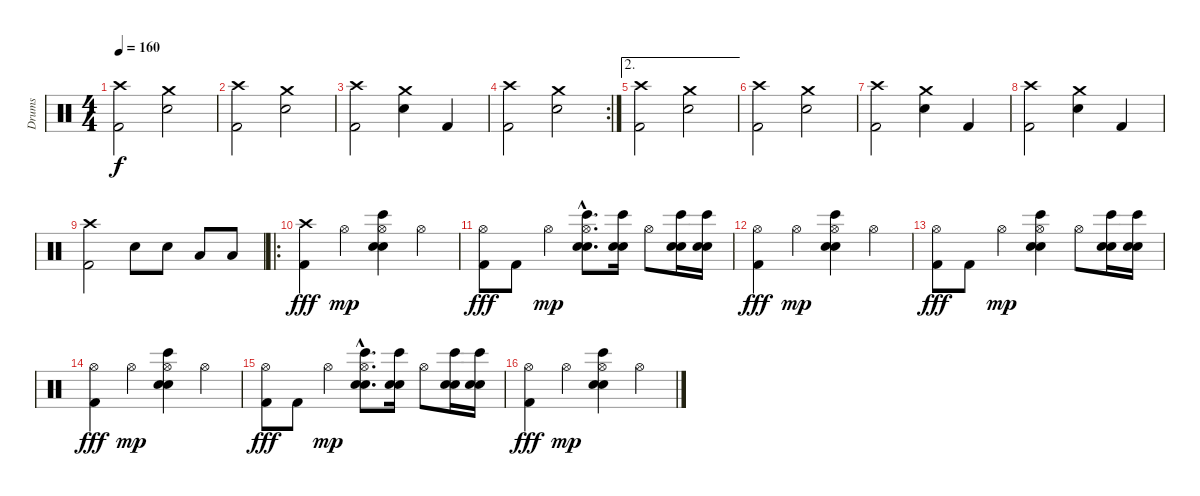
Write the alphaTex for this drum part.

\track ("Drums" "Drums") {instrument percussion}
\staff {score}
\articulation defaults
\ts (4 4)
\tempo 160
\clef neutral
\ks c
("Crash high (hit)" "Kick (hit) 2").2{dy f} ("Crash medium (hit)" "Snare (hit) 2").2 |
("Crash high (hit)" "Kick (hit) 2").2 ("Crash medium (hit)" "Snare (hit) 2").2 |
("Crash high (hit)" "Kick (hit) 2").2 ("Crash medium (hit)" "Snare (hit) 2").4 "Kick (hit) 2".4 |
\rc 2
("Crash high (hit)" "Kick (hit) 2").2 ("Crash medium (hit)" "Snare (hit) 2").2 |
\ae 2
("Crash high (hit)" "Kick (hit) 2").2 ("Crash medium (hit)" "Snare (hit) 2").2 |
("Crash high (hit)" "Kick (hit) 2").2 ("Crash medium (hit)" "Snare (hit) 2").2 |
("Crash high (hit)" "Kick (hit) 2").2 ("Crash medium (hit)" "Snare (hit) 2").4 "Kick (hit) 2".4 |
("Crash high (hit)" "Kick (hit) 2").2 ("Crash medium (hit)" "Snare (hit) 2").4 "Kick (hit) 2".4 |
("Crash high (hit)" "Kick (hit) 2").2 "Snare (hit) 2".8 "Snare (hit) 2".8 "Low Tom (hit)".8 "Low Tom (hit)".8 |
\ro
("Crash high (hit)" "Kick (hit) 2").4{dy fff} "Hi-Hat (open)".4{dy mp} ("Hi-Hat (open)" "Bongo High (hit)" "Snare (hit) 2" "Electric Snare (hit)").4 "Hi-Hat (open)".4 |
("Hi-Hat (open)" "Kick (hit) 2").8{dy fff} "Kick (hit) 2".8 "Hi-Hat (open)".4{dy mp} ("Hi-Hat (open)"{hac} "Bongo High (hit)"{hac} "Snare (hit) 2"{hac} "Electric Snare (hit)"{hac}).8{d} ("Bongo High (hit)" "Snare (hit) 2" "Electric Snare (hit)").16 "Hi-Hat (open)".8 ("Bongo High (hit)" "Snare (hit) 2" "Electric Snare (hit)").16 ("Bongo High (hit)" "Snare (hit) 2" "Electric Snare (hit)").16 |
("Hi-Hat (open)" "Kick (hit) 2").4{dy fff} "Hi-Hat (open)".4{dy mp} ("Hi-Hat (open)" "Bongo High (hit)" "Snare (hit) 2" "Electric Snare (hit)").4 "Hi-Hat (open)".4 |
("Hi-Hat (open)" "Kick (hit) 2").8{dy fff} "Kick (hit) 2".8 "Hi-Hat (open)".4{dy mp} ("Hi-Hat (open)" "Bongo High (hit)" "Snare (hit) 2" "Electric Snare (hit)").4 "Hi-Hat (open)".8 ("Bongo High (hit)" "Snare (hit) 2" "Electric Snare (hit)").16 ("Bongo High (hit)" "Snare (hit) 2" "Electric Snare (hit)").16 |
("Hi-Hat (open)" "Kick (hit) 2").4{dy fff} "Hi-Hat (open)".4{dy mp} ("Hi-Hat (open)" "Bongo High (hit)" "Snare (hit) 2" "Electric Snare (hit)").4 "Hi-Hat (open)".4 |
("Hi-Hat (open)" "Kick (hit) 2").8{dy fff} "Kick (hit) 2".8 "Hi-Hat (open)".4{dy mp} ("Hi-Hat (open)"{hac} "Bongo High (hit)"{hac} "Snare (hit) 2"{hac} "Electric Snare (hit)"{hac}).8{d} ("Bongo High (hit)" "Snare (hit) 2" "Electric Snare (hit)").16 "Hi-Hat (open)".8 ("Bongo High (hit)" "Snare (hit) 2" "Electric Snare (hit)").16 ("Bongo High (hit)" "Snare (hit) 2" "Electric Snare (hit)").16 |
("Hi-Hat (open)" "Kick (hit) 2").4{dy fff} "Hi-Hat (open)".4{dy mp} ("Hi-Hat (open)" "Bongo High (hit)" "Snare (hit) 2" "Electric Snare (hit)").4 "Hi-Hat (open)".4
